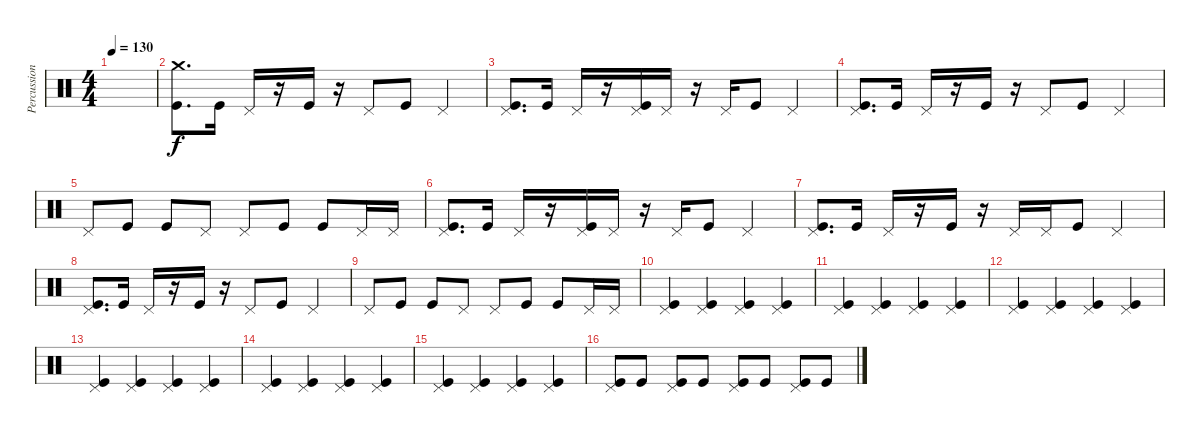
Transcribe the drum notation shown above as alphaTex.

\track ("Percussion" "Percussion") {instrument percussion}
\staff {score}
\articulation defaults
\ts (4 4)
\tempo 130
\clef neutral
\ks c
|
("Crash medium (hit)" "Kick (hit)").8{d dy f} "Kick (hit)".16 "Pedal Hi-Hat (hit)".16 r.16 "Kick (hit)".16 r.16 "Pedal Hi-Hat (hit)".8 "Kick (hit)".8 "Pedal Hi-Hat (hit)".4 |
("Pedal Hi-Hat (hit)" "Kick (hit)").8{d} "Kick (hit)".16 "Pedal Hi-Hat (hit)".16 r.16 ("Pedal Hi-Hat (hit)" "Kick (hit)").16 "Pedal Hi-Hat (hit)".16 r.16 "Pedal Hi-Hat (hit)".16 "Kick (hit)".8 "Pedal Hi-Hat (hit)".4 |
("Pedal Hi-Hat (hit)" "Kick (hit)").8{d} "Kick (hit)".16 "Pedal Hi-Hat (hit)".16 r.16 "Kick (hit)".16 r.16 "Pedal Hi-Hat (hit)".8 "Kick (hit)".8 "Pedal Hi-Hat (hit)".4 |
"Pedal Hi-Hat (hit)".8 "Kick (hit)".8 "Kick (hit)".8 "Pedal Hi-Hat (hit)".8 "Pedal Hi-Hat (hit)".8 "Kick (hit)".8 "Kick (hit)".8 "Pedal Hi-Hat (hit)".16 "Pedal Hi-Hat (hit)".16 |
("Pedal Hi-Hat (hit)" "Kick (hit)").8{d} "Kick (hit)".16 "Pedal Hi-Hat (hit)".16 r.16 ("Pedal Hi-Hat (hit)" "Kick (hit)").16 "Pedal Hi-Hat (hit)".16 r.16 "Pedal Hi-Hat (hit)".16 "Kick (hit)".8 "Pedal Hi-Hat (hit)".4 |
("Pedal Hi-Hat (hit)" "Kick (hit)").8{d} "Kick (hit)".16 "Pedal Hi-Hat (hit)".16 r.16 "Kick (hit)".16 r.16 "Pedal Hi-Hat (hit)".16 "Pedal Hi-Hat (hit)".16 "Kick (hit)".8 "Pedal Hi-Hat (hit)".4 |
("Pedal Hi-Hat (hit)" "Kick (hit)").8{d} "Kick (hit)".16 "Pedal Hi-Hat (hit)".16 r.16 "Kick (hit)".16 r.16 "Pedal Hi-Hat (hit)".8 "Kick (hit)".8 "Pedal Hi-Hat (hit)".4 |
"Pedal Hi-Hat (hit)".8 "Kick (hit)".8 "Kick (hit)".8 "Pedal Hi-Hat (hit)".8 "Pedal Hi-Hat (hit)".8 "Kick (hit)".8 "Kick (hit)".8 "Pedal Hi-Hat (hit)".16 "Pedal Hi-Hat (hit)".16 |
("Pedal Hi-Hat (hit)" "Kick (hit)").4 ("Pedal Hi-Hat (hit)" "Kick (hit)").4 ("Pedal Hi-Hat (hit)" "Kick (hit)").4 ("Pedal Hi-Hat (hit)" "Kick (hit)").4 |
("Pedal Hi-Hat (hit)" "Kick (hit)").4 ("Pedal Hi-Hat (hit)" "Kick (hit)").4 ("Pedal Hi-Hat (hit)" "Kick (hit)").4 ("Pedal Hi-Hat (hit)" "Kick (hit)").4 |
("Pedal Hi-Hat (hit)" "Kick (hit)").4 ("Pedal Hi-Hat (hit)" "Kick (hit)").4 ("Pedal Hi-Hat (hit)" "Kick (hit)").4 ("Pedal Hi-Hat (hit)" "Kick (hit)").4 |
("Pedal Hi-Hat (hit)" "Kick (hit)").4 ("Pedal Hi-Hat (hit)" "Kick (hit)").4 ("Pedal Hi-Hat (hit)" "Kick (hit)").4 ("Pedal Hi-Hat (hit)" "Kick (hit)").4 |
("Pedal Hi-Hat (hit)" "Kick (hit)").4 ("Pedal Hi-Hat (hit)" "Kick (hit)").4 ("Pedal Hi-Hat (hit)" "Kick (hit)").4 ("Pedal Hi-Hat (hit)" "Kick (hit)").4 |
("Pedal Hi-Hat (hit)" "Kick (hit)").4 ("Pedal Hi-Hat (hit)" "Kick (hit)").4 ("Pedal Hi-Hat (hit)" "Kick (hit)").4 ("Pedal Hi-Hat (hit)" "Kick (hit)").4 |
("Pedal Hi-Hat (hit)" "Kick (hit)").8 "Kick (hit)".8 ("Pedal Hi-Hat (hit)" "Kick (hit)").8 "Kick (hit)".8 ("Pedal Hi-Hat (hit)" "Kick (hit)").8 "Kick (hit)".8 ("Pedal Hi-Hat (hit)" "Kick (hit)").8 "Kick (hit)".8
